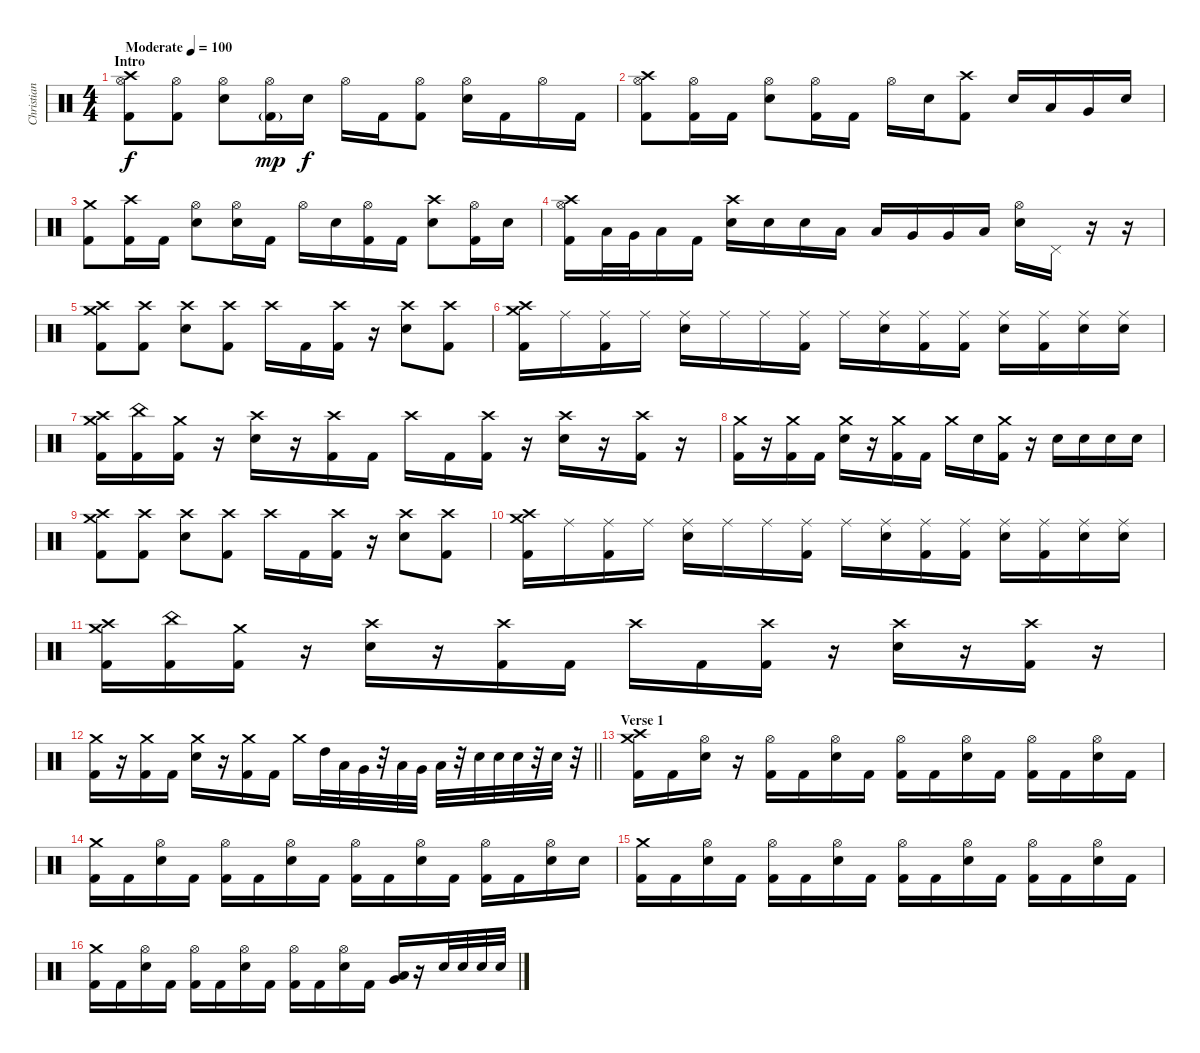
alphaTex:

\track ("Christian 'CC' Coma" "Christian ") {instrument percussion}
\staff {score}
\articulation defaults
\ts (4 4)
\section ("" "Intro")
\tempo (100 "Moderate")
\clef neutral
\ks c
("Hi-Hat (open)" "Crash high (hit)" "Kick (hit) 2").8{dy f} ("Hi-Hat (open)" "Kick (hit) 2").8 ("Hi-Hat (open)" "Electric Snare (hit)").8 ("Hi-Hat (open)" "Kick (hit) 2"{g}).16{dy mp} "Electric Snare (hit)".16{dy f} "Hi-Hat (open)".16 "Kick (hit) 2".16 ("Hi-Hat (open)" "Kick (hit) 2").8 ("Hi-Hat (open)" "Electric Snare (hit)").16 "Kick (hit) 2".16 "Hi-Hat (open)".16 "Kick (hit) 2".16 |
("Hi-Hat (open)" "Crash high (hit)" "Kick (hit) 2").8 ("Hi-Hat (open)" "Kick (hit) 2").16 "Kick (hit) 2".16 ("Hi-Hat (open)" "Electric Snare (hit)").8 ("Hi-Hat (open)" "Kick (hit) 2").16 "Kick (hit) 2".16 "Hi-Hat (open)".16 "Electric Snare (hit)".16 ("Crash high (hit)" "Kick (hit) 2").8 "Electric Snare (hit)".16 "Low Tom (hit)".16 "Very Low Tom (hit)".16 "Electric Snare (hit)".16 |
("Crash medium (hit)" "Kick (hit) 2").8 ("Crash high (hit)" "Kick (hit) 2").16 "Kick (hit) 2".16 ("Hi-Hat (open)" "Electric Snare (hit)").8 ("Hi-Hat (open)" "Electric Snare (hit)").16 "Kick (hit) 2".16 "Hi-Hat (open)".16 "Electric Snare (hit)".16 ("Hi-Hat (open)" "Kick (hit) 2").16 "Kick (hit) 2".16 ("Crash high (hit)" "Electric Snare (hit)").8 ("Hi-Hat (open)" "Kick (hit) 2").16 "Electric Snare (hit)".16 |
("Crash high (hit)" "Hi-Hat (open)" "Kick (hit) 2").16 "Low Tom (hit)".32 "Very Low Tom (hit)".32 "Low Floor Tom (hit)".16 "Kick (hit) 2".16 ("Crash high (hit)" "Electric Snare (hit)").16 "Electric Snare (hit)".16 "Electric Snare (hit)".16 "Low Tom (hit)".16 "Low Tom (hit)".16 "Very Low Tom (hit)".16 "Very Low Tom (hit)".16 "Low Floor Tom (hit)".16 ("Hi-Hat (open)" "Electric Snare (hit)").16 "Pedal Hi-Hat (hit)".16 r.16 r.16 |
("Crash high (hit)" "Crash medium (hit)" "Kick (hit) 2").8 ("Crash high (hit)" "Kick (hit) 2").8 ("Crash high (hit)" "Electric Snare (hit)").8 ("Crash high (hit)" "Kick (hit) 2").8 "Crash high (hit)".16 "Kick (hit) 2".16 ("Crash high (hit)" "Kick (hit) 2").16 r.16 ("Crash high (hit)" "Electric Snare (hit)").8 ("Crash high (hit)" "Kick (hit) 2").8 |
("Crash medium (hit)" "Crash high (hit)" "Kick (hit) 2").16 "Ride (middle)".16 ("Ride (middle)" "Kick (hit) 2").16 "Ride (middle)".16 ("Ride (middle)" "Electric Snare (hit)").16 "Ride (middle)".16 "Ride (middle)".16 ("Ride (middle)" "Kick (hit) 2").16 "Ride (middle)".16 ("Ride (middle)" "Electric Snare (hit)").16 ("Ride (middle)" "Kick (hit) 2").16 ("Ride (middle)" "Kick (hit) 2").16 ("Ride (middle)" "Electric Snare (hit)").16 ("Ride (middle)" "Kick (hit) 2").16 ("Ride (middle)" "Electric Snare (hit)").16 ("Ride (middle)" "Electric Snare (hit)").16 |
("Crash high (hit)" "Crash medium (hit)" "Kick (hit) 2").16 ("China (hit)" "Kick (hit) 2").16 ("Crash medium (hit)" "Kick (hit) 2").16 r.16 ("Crash high (hit)" "Electric Snare (hit)").16 r.16 ("Crash high (hit)" "Kick (hit) 2").16 "Kick (hit) 2".16 "Crash high (hit)".16 "Kick (hit) 2".16 ("Crash high (hit)" "Kick (hit) 2").16 r.16 ("Crash high (hit)" "Electric Snare (hit)").16 r.16 ("Crash high (hit)" "Kick (hit) 2").16 r.16 |
("Crash medium (hit)" "Kick (hit) 2").16 r.16 ("Crash medium (hit)" "Kick (hit) 2").16 "Kick (hit) 2".16 ("Crash medium (hit)" "Electric Snare (hit)").16 r.16 ("Crash medium (hit)" "Kick (hit) 2").16 "Kick (hit) 2".16 "Crash medium (hit)".16 "Electric Snare (hit)".16 ("Crash medium (hit)" "Kick (hit) 2").16 r.16 "Electric Snare (hit)".16 "Electric Snare (hit)".16 "Electric Snare (hit)".16 "Electric Snare (hit)".16 |
("Crash high (hit)" "Crash medium (hit)" "Kick (hit) 2").8 ("Crash high (hit)" "Kick (hit) 2").8 ("Crash high (hit)" "Electric Snare (hit)").8 ("Crash high (hit)" "Kick (hit) 2").8 "Crash high (hit)".16 "Kick (hit) 2".16 ("Crash high (hit)" "Kick (hit) 2").16 r.16 ("Crash high (hit)" "Electric Snare (hit)").8 ("Crash high (hit)" "Kick (hit) 2").8 |
("Crash medium (hit)" "Crash high (hit)" "Kick (hit) 2").16 "Ride (middle)".16 ("Ride (middle)" "Kick (hit) 2").16 "Ride (middle)".16 ("Ride (middle)" "Electric Snare (hit)").16 "Ride (middle)".16 "Ride (middle)".16 ("Ride (middle)" "Kick (hit) 2").16 "Ride (middle)".16 ("Ride (middle)" "Electric Snare (hit)").16 ("Ride (middle)" "Kick (hit) 2").16 ("Ride (middle)" "Kick (hit) 2").16 ("Ride (middle)" "Electric Snare (hit)").16 ("Ride (middle)" "Kick (hit) 2").16 ("Ride (middle)" "Electric Snare (hit)").16 ("Ride (middle)" "Electric Snare (hit)").16 |
("Crash high (hit)" "Crash medium (hit)" "Kick (hit) 2").16 ("China (hit)" "Kick (hit) 2").16 ("Crash medium (hit)" "Kick (hit) 2").16 r.16 ("Crash high (hit)" "Electric Snare (hit)").16 r.16 ("Crash high (hit)" "Kick (hit) 2").16 "Kick (hit) 2".16 "Crash high (hit)".16 "Kick (hit) 2".16 ("Crash high (hit)" "Kick (hit) 2").16 r.16 ("Crash high (hit)" "Electric Snare (hit)").16 r.16 ("Crash high (hit)" "Kick (hit) 2").16 r.16 |
\barLineRight lightlight
("Crash medium (hit)" "Kick (hit) 2").16 r.16 ("Crash medium (hit)" "Kick (hit) 2").16 "Kick (hit) 2".16 ("Crash medium (hit)" "Electric Snare (hit)").16 r.16 ("Crash medium (hit)" "Kick (hit) 2").16 "Kick (hit) 2".16 "Crash medium (hit)".16 "High Tom (hit)".32 "Low Tom (hit)".32 "Very Low Tom (hit)".32 r.32 "Low Tom (hit)".32 "Very Low Tom (hit)".32 "Low Floor Tom (hit)".32 r.32 "Electric Snare (hit)".32 "Electric Snare (hit)".32 "Electric Snare (hit)".32 r.32 "Electric Snare (hit)".32 r.32 |
\section ("" "Verse 1 ")
("Crash medium (hit)" "Crash high (hit)" "Kick (hit) 2").16 "Kick (hit) 2".16 ("Hi-Hat (open)" "Electric Snare (hit)").16 r.16 ("Hi-Hat (open)" "Kick (hit) 2").16 "Kick (hit) 2".16 ("Hi-Hat (open)" "Electric Snare (hit)").16 "Kick (hit) 2".16 ("Hi-Hat (open)" "Kick (hit) 2").16 "Kick (hit) 2".16 ("Hi-Hat (open)" "Electric Snare (hit)").16 "Kick (hit) 2".16 ("Hi-Hat (open)" "Kick (hit) 2").16 "Kick (hit) 2".16 ("Hi-Hat (open)" "Electric Snare (hit)").16 "Kick (hit) 2".16 |
("Crash medium (hit)" "Kick (hit) 2").16 "Kick (hit) 2".16 ("Hi-Hat (open)" "Electric Snare (hit)").16 "Kick (hit) 2".16 ("Hi-Hat (open)" "Kick (hit) 2").16 "Kick (hit) 2".16 ("Hi-Hat (open)" "Electric Snare (hit)").16 "Kick (hit) 2".16 ("Hi-Hat (open)" "Kick (hit) 2").16 "Kick (hit) 2".16 ("Hi-Hat (open)" "Electric Snare (hit)").16 "Kick (hit) 2".16 ("Hi-Hat (open)" "Kick (hit) 2").16 "Kick (hit) 2".16 ("Hi-Hat (open)" "Electric Snare (hit)").16 "Electric Snare (hit)".16 |
("Crash medium (hit)" "Kick (hit) 2").16 "Kick (hit) 2".16 ("Hi-Hat (open)" "Electric Snare (hit)").16 "Kick (hit) 2".16 ("Hi-Hat (open)" "Kick (hit) 2").16 "Kick (hit) 2".16 ("Hi-Hat (open)" "Electric Snare (hit)").16 "Kick (hit) 2".16 ("Hi-Hat (open)" "Kick (hit) 2").16 "Kick (hit) 2".16 ("Hi-Hat (open)" "Electric Snare (hit)").16 "Kick (hit) 2".16 ("Hi-Hat (open)" "Kick (hit) 2").16 "Kick (hit) 2".16 ("Hi-Hat (open)" "Electric Snare (hit)").16 "Kick (hit) 2".16 |
("Crash medium (hit)" "Kick (hit) 2").16 "Kick (hit) 2".16 ("Hi-Hat (open)" "Electric Snare (hit)").16 "Kick (hit) 2".16 ("Hi-Hat (open)" "Kick (hit) 2").16 "Kick (hit) 2".16 ("Hi-Hat (open)" "Electric Snare (hit)").16 "Kick (hit) 2".16 ("Hi-Hat (open)" "Kick (hit) 2").16 "Kick (hit) 2".16 ("Hi-Hat (open)" "Electric Snare (hit)").16 "Kick (hit) 2".16 ("Very Low Tom (hit)" "Low Floor Tom (hit)").16 r.16 "Electric Snare (hit)".32 "Electric Snare (hit)".32 "Electric Snare (hit)".32 "Electric Snare (hit)".32
